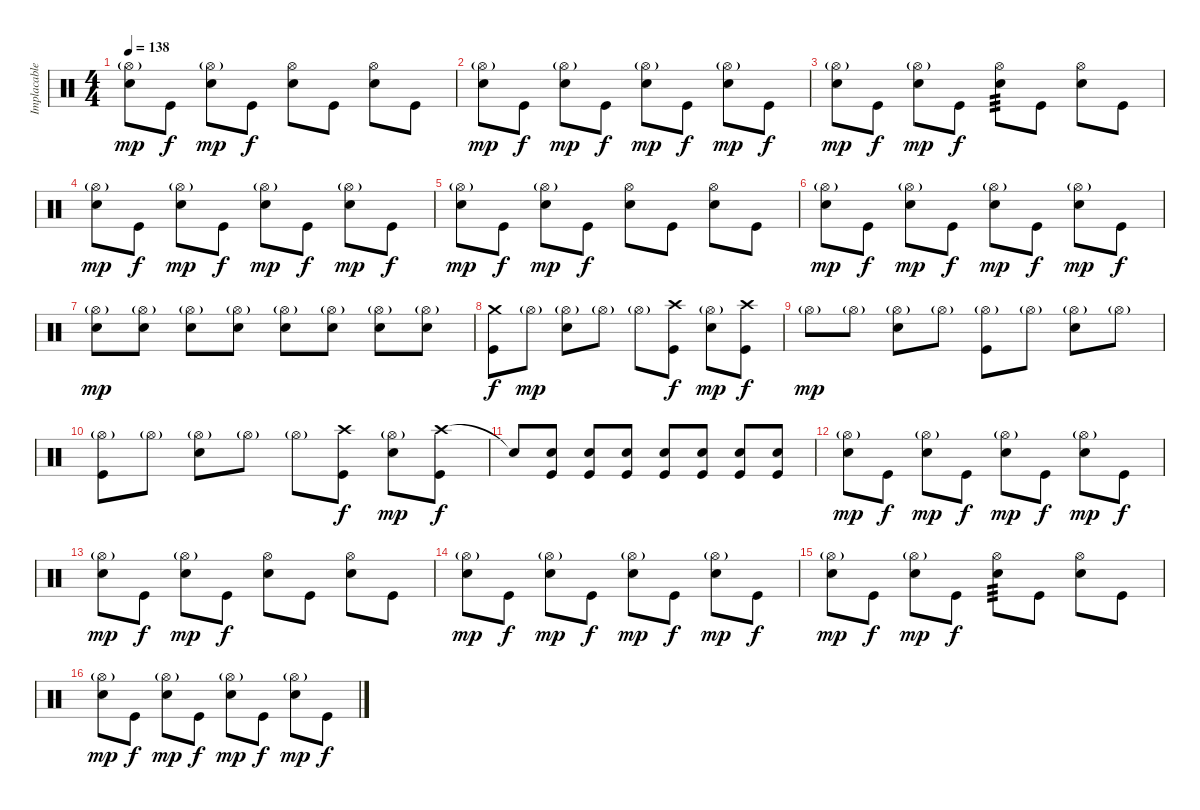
\track ("Implacable Gonzalez" "Implacable") {instrument percussion}
\staff {score}
\articulation defaults
\ts (4 4)
\tempo 138
\clef neutral
\ks c
("Hi-Hat (open)"{g} "Snare (hit) 2").8{dy mp} "Kick (hit)".8{dy f} ("Hi-Hat (open)"{g} "Snare (hit) 2").8{dy mp} "Kick (hit)".8{dy f} ("Hi-Hat (open)" "Snare (hit) 2").8 "Kick (hit)".8 ("Hi-Hat (open)" "Snare (hit) 2").8 "Kick (hit)".8 |
("Hi-Hat (open)"{g} "Snare (hit) 2").8{dy mp} "Kick (hit)".8{dy f} ("Hi-Hat (open)"{g} "Snare (hit) 2").8{dy mp} "Kick (hit)".8{dy f} ("Hi-Hat (open)"{g} "Snare (hit) 2").8{dy mp} "Kick (hit)".8{dy f} ("Hi-Hat (open)"{g} "Snare (hit) 2").8{dy mp} "Kick (hit)".8{dy f} |
("Hi-Hat (open)"{g} "Snare (hit) 2").8{dy mp} "Kick (hit)".8{dy f} ("Hi-Hat (open)"{g} "Snare (hit) 2").8{dy mp} "Kick (hit)".8{dy f} ("Hi-Hat (open)" "Snare (hit) 2").8{tp 3} "Kick (hit)".8 ("Hi-Hat (open)" "Snare (hit) 2").8 "Kick (hit)".8 |
("Hi-Hat (open)"{g} "Snare (hit) 2").8{dy mp} "Kick (hit)".8{dy f} ("Hi-Hat (open)"{g} "Snare (hit) 2").8{dy mp} "Kick (hit)".8{dy f} ("Hi-Hat (open)"{g} "Snare (hit) 2").8{dy mp} "Kick (hit)".8{dy f} ("Hi-Hat (open)"{g} "Snare (hit) 2").8{dy mp} "Kick (hit)".8{dy f} |
("Hi-Hat (open)"{g} "Snare (hit) 2").8{dy mp} "Kick (hit)".8{dy f} ("Hi-Hat (open)"{g} "Snare (hit) 2").8{dy mp} "Kick (hit)".8{dy f} ("Hi-Hat (open)" "Snare (hit) 2").8 "Kick (hit)".8 ("Hi-Hat (open)" "Snare (hit) 2").8 "Kick (hit)".8 |
("Hi-Hat (open)"{g} "Snare (hit) 2").8{dy mp} "Kick (hit)".8{dy f} ("Hi-Hat (open)"{g} "Snare (hit) 2").8{dy mp} "Kick (hit)".8{dy f} ("Hi-Hat (open)"{g} "Snare (hit) 2").8{dy mp} "Kick (hit)".8{dy f} ("Hi-Hat (open)"{g} "Snare (hit) 2").8{dy mp} "Kick (hit)".8{dy f} |
("Hi-Hat (open)"{g} "Snare (hit) 2").8{dy mp} ("Hi-Hat (open)"{g} "Snare (hit) 2").8 ("Hi-Hat (open)"{g} "Snare (hit) 2").8 ("Hi-Hat (open)"{g} "Snare (hit) 2").8 ("Hi-Hat (open)"{g} "Snare (hit) 2").8 ("Hi-Hat (open)"{g} "Snare (hit) 2").8 ("Hi-Hat (open)"{g} "Snare (hit) 2").8 ("Hi-Hat (open)"{g} "Snare (hit) 2").8 |
("Crash medium (hit)" "Kick (hit)").8{dy f} "Hi-Hat (open)"{g}.8{dy mp} ("Hi-Hat (open)"{g} "Snare (hit) 2").8 "Hi-Hat (open)"{g}.8 "Hi-Hat (open)"{g}.8 ("Crash high (hit)" "Kick (hit)").8{dy f} ("Hi-Hat (open)"{g} "Snare (hit) 2").8{dy mp} ("Crash high (hit)" "Kick (hit)").8{dy f} |
"Hi-Hat (open)"{g}.8{dy mp} "Hi-Hat (open)"{g}.8 ("Hi-Hat (open)"{g} "Snare (hit) 2").8 "Hi-Hat (open)"{g}.8 ("Hi-Hat (open)"{g} "Kick (hit)").8 "Hi-Hat (open)"{g}.8 ("Hi-Hat (open)"{g} "Snare (hit) 2").8 "Hi-Hat (open)"{g}.8 |
("Hi-Hat (open)"{g} "Kick (hit)").8 "Hi-Hat (open)"{g}.8 ("Hi-Hat (open)"{g} "Snare (hit) 2").8 "Hi-Hat (open)"{g}.8 "Hi-Hat (open)"{g}.8 ("Crash high (hit)" "Kick (hit)").8{dy f} ("Hi-Hat (open)"{g} "Snare (hit) 2").8{dy mp} ("Crash high (hit)" "Kick (hit)").8{dy f} |
"Snare (hit)"{t}.8 ("Snare (hit) 2" "Kick (hit)").8 ("Snare (hit) 2" "Kick (hit)").8 ("Snare (hit) 2" "Kick (hit)").8 ("Snare (hit) 2" "Kick (hit)").8 ("Snare (hit) 2" "Kick (hit)").8 ("Snare (hit) 2" "Kick (hit)").8 ("Snare (hit) 2" "Kick (hit)").8 |
("Hi-Hat (open)"{g} "Snare (hit) 2").8{dy mp} "Kick (hit)".8{dy f} ("Hi-Hat (open)"{g} "Snare (hit) 2").8{dy mp} "Kick (hit)".8{dy f} ("Hi-Hat (open)"{g} "Snare (hit) 2").8{dy mp} "Kick (hit)".8{dy f} ("Hi-Hat (open)"{g} "Snare (hit) 2").8{dy mp} "Kick (hit)".8{dy f} |
("Hi-Hat (open)"{g} "Snare (hit) 2").8{dy mp} "Kick (hit)".8{dy f} ("Hi-Hat (open)"{g} "Snare (hit) 2").8{dy mp} "Kick (hit)".8{dy f} ("Hi-Hat (open)" "Snare (hit) 2").8 "Kick (hit)".8 ("Hi-Hat (open)" "Snare (hit) 2").8 "Kick (hit)".8 |
("Hi-Hat (open)"{g} "Snare (hit) 2").8{dy mp} "Kick (hit)".8{dy f} ("Hi-Hat (open)"{g} "Snare (hit) 2").8{dy mp} "Kick (hit)".8{dy f} ("Hi-Hat (open)"{g} "Snare (hit) 2").8{dy mp} "Kick (hit)".8{dy f} ("Hi-Hat (open)"{g} "Snare (hit) 2").8{dy mp} "Kick (hit)".8{dy f} |
("Hi-Hat (open)"{g} "Snare (hit) 2").8{dy mp} "Kick (hit)".8{dy f} ("Hi-Hat (open)"{g} "Snare (hit) 2").8{dy mp} "Kick (hit)".8{dy f} ("Hi-Hat (open)" "Snare (hit) 2").8{tp 3} "Kick (hit)".8 ("Hi-Hat (open)" "Snare (hit) 2").8 "Kick (hit)".8 |
("Hi-Hat (open)"{g} "Snare (hit) 2").8{dy mp} "Kick (hit)".8{dy f} ("Hi-Hat (open)"{g} "Snare (hit) 2").8{dy mp} "Kick (hit)".8{dy f} ("Hi-Hat (open)"{g} "Snare (hit) 2").8{dy mp} "Kick (hit)".8{dy f} ("Hi-Hat (open)"{g} "Snare (hit) 2").8{dy mp} "Kick (hit)".8{dy f}
